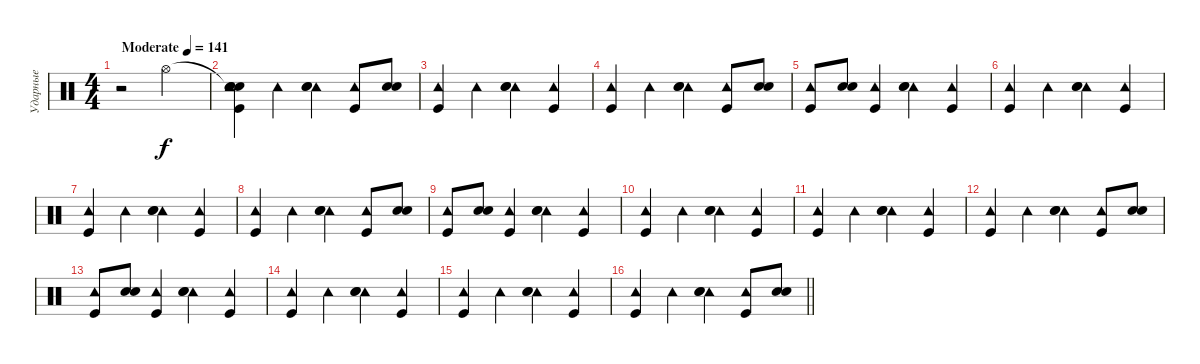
\track ("Ударные" "Ударные") {instrument percussion}
\staff {score}
\articulation defaults
\ts (4 4)
\tempo (141 "Moderate")
\clef neutral
\ks c
r.2{dy f} "Hi-Hat (open)".2 |
("Snare (hit)"{t} "Tambourine (hit)" "Snare (hit) 2" "Kick (hit)" "Electric Snare (hit)").4 "Tambourine (hit)".4 ("Tambourine (hit)" "Snare (hit) 2" "Electric Snare (hit)").4 ("Tambourine (hit)" "Kick (hit)").8 ("Snare (hit) 2" "Electric Snare (hit)").8 |
("Tambourine (hit)" "Kick (hit)").4 "Tambourine (hit)".4 ("Tambourine (hit)" "Snare (hit) 2" "Electric Snare (hit)").4 ("Tambourine (hit)" "Kick (hit)").4 |
("Tambourine (hit)" "Kick (hit)").4 "Tambourine (hit)".4 ("Tambourine (hit)" "Snare (hit) 2" "Electric Snare (hit)").4 ("Tambourine (hit)" "Kick (hit)").8 ("Snare (hit) 2" "Electric Snare (hit)").8 |
("Tambourine (hit)" "Kick (hit)").8 ("Snare (hit) 2" "Electric Snare (hit)").8 ("Tambourine (hit)" "Kick (hit)").4 ("Tambourine (hit)" "Snare (hit) 2" "Electric Snare (hit)").4 ("Tambourine (hit)" "Kick (hit)").4 |
("Tambourine (hit)" "Kick (hit)").4 "Tambourine (hit)".4 ("Tambourine (hit)" "Snare (hit) 2" "Electric Snare (hit)").4 ("Tambourine (hit)" "Kick (hit)").4 |
("Tambourine (hit)" "Kick (hit)").4 "Tambourine (hit)".4 ("Tambourine (hit)" "Snare (hit) 2" "Electric Snare (hit)").4 ("Tambourine (hit)" "Kick (hit)").4 |
("Tambourine (hit)" "Kick (hit)").4 "Tambourine (hit)".4 ("Tambourine (hit)" "Snare (hit) 2" "Electric Snare (hit)").4 ("Tambourine (hit)" "Kick (hit)").8 ("Snare (hit) 2" "Electric Snare (hit)").8 |
("Tambourine (hit)" "Kick (hit)").8 ("Snare (hit) 2" "Electric Snare (hit)").8 ("Tambourine (hit)" "Kick (hit)").4 ("Tambourine (hit)" "Snare (hit) 2" "Electric Snare (hit)").4 ("Tambourine (hit)" "Kick (hit)").4 |
("Tambourine (hit)" "Kick (hit)").4 "Tambourine (hit)".4 ("Tambourine (hit)" "Snare (hit) 2" "Electric Snare (hit)").4 ("Tambourine (hit)" "Kick (hit)").4 |
("Tambourine (hit)" "Kick (hit)").4 "Tambourine (hit)".4 ("Tambourine (hit)" "Snare (hit) 2" "Electric Snare (hit)").4 ("Tambourine (hit)" "Kick (hit)").4 |
("Tambourine (hit)" "Kick (hit)").4 "Tambourine (hit)".4 ("Tambourine (hit)" "Snare (hit) 2" "Electric Snare (hit)").4 ("Tambourine (hit)" "Kick (hit)").8 ("Snare (hit) 2" "Electric Snare (hit)").8 |
("Tambourine (hit)" "Kick (hit)").8 ("Snare (hit) 2" "Electric Snare (hit)").8 ("Tambourine (hit)" "Kick (hit)").4 ("Tambourine (hit)" "Snare (hit) 2" "Electric Snare (hit)").4 ("Tambourine (hit)" "Kick (hit)").4 |
("Tambourine (hit)" "Kick (hit)").4 "Tambourine (hit)".4 ("Tambourine (hit)" "Snare (hit) 2" "Electric Snare (hit)").4 ("Tambourine (hit)" "Kick (hit)").4 |
("Tambourine (hit)" "Kick (hit)").4 "Tambourine (hit)".4 ("Tambourine (hit)" "Snare (hit) 2" "Electric Snare (hit)").4 ("Tambourine (hit)" "Kick (hit)").4 |
\barLineRight lightlight
("Tambourine (hit)" "Kick (hit)").4 "Tambourine (hit)".4 ("Tambourine (hit)" "Snare (hit) 2" "Electric Snare (hit)").4 ("Tambourine (hit)" "Kick (hit)").8 ("Snare (hit) 2" "Electric Snare (hit)").8
